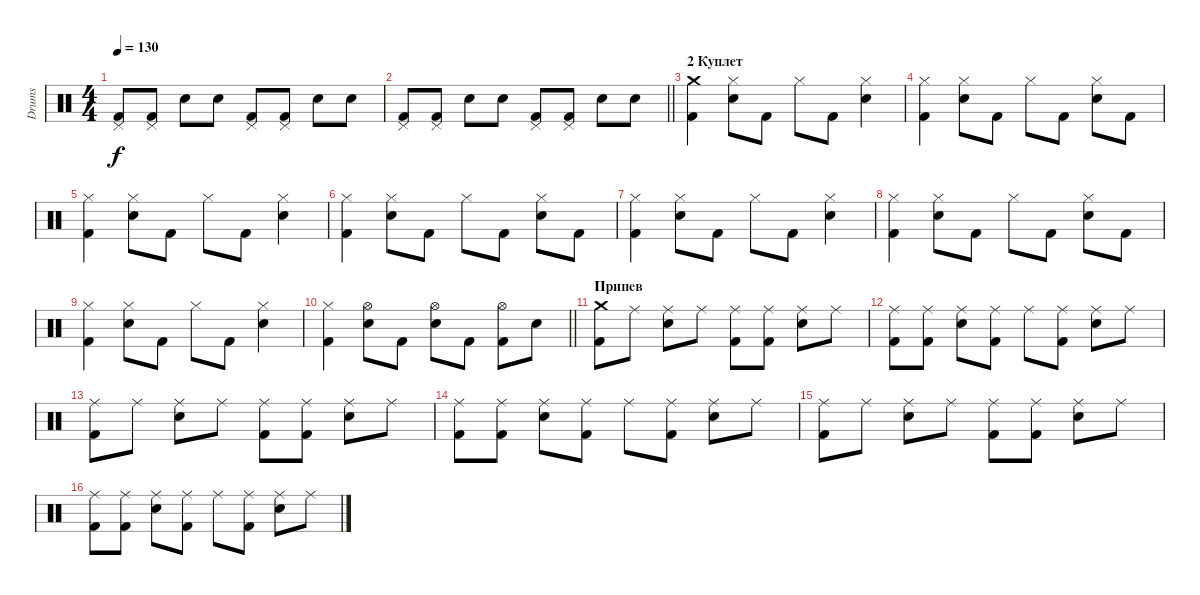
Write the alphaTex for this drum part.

\track ("Drums" "Drums") {instrument percussion}
\staff {score}
\articulation defaults
\ts (4 4)
\tempo 130
\clef neutral
\ks c
("Pedal Hi-Hat (hit)" "Kick (hit) 2").8{dy f} ("Pedal Hi-Hat (hit)" "Kick (hit) 2").8 "Snare (hit) 2".8 "Snare (hit)".8 ("Pedal Hi-Hat (hit)" "Kick (hit) 2").8 ("Pedal Hi-Hat (hit)" "Kick (hit) 2").8 "Snare (hit) 2".8 "Snare (hit)".8 |
\barLineRight lightlight
("Pedal Hi-Hat (hit)" "Kick (hit) 2").8 ("Pedal Hi-Hat (hit)" "Kick (hit) 2").8 "Snare (hit) 2".8 "Snare (hit)".8 ("Pedal Hi-Hat (hit)" "Kick (hit) 2").8 ("Pedal Hi-Hat (hit)" "Kick (hit) 2").8 "Snare (hit) 2".8 "Snare (hit)".8 |
\section ("" "2 Куплет")
("Crash medium (hit)" "Kick (hit) 2").4 ("Hi-Hat (closed)" "Snare (hit) 2").8 "Kick (hit) 2".8 "Hi-Hat (closed)".8 "Kick (hit) 2".8 ("Hi-Hat (closed)" "Snare (hit) 2").4 |
("Hi-Hat (closed)" "Kick (hit) 2").4 ("Hi-Hat (closed)" "Snare (hit) 2").8 "Kick (hit) 2".8 "Hi-Hat (closed)".8 "Kick (hit) 2".8 ("Hi-Hat (closed)" "Snare (hit) 2").8 "Kick (hit) 2".8 |
("Hi-Hat (closed)" "Kick (hit) 2").4 ("Hi-Hat (closed)" "Snare (hit) 2").8 "Kick (hit) 2".8 "Hi-Hat (closed)".8 "Kick (hit) 2".8 ("Hi-Hat (closed)" "Snare (hit) 2").4 |
("Hi-Hat (closed)" "Kick (hit) 2").4 ("Hi-Hat (closed)" "Snare (hit) 2").8 "Kick (hit) 2".8 "Hi-Hat (closed)".8 "Kick (hit) 2".8 ("Hi-Hat (closed)" "Snare (hit) 2").8 "Kick (hit) 2".8 |
("Hi-Hat (closed)" "Kick (hit) 2").4 ("Hi-Hat (closed)" "Snare (hit) 2").8 "Kick (hit) 2".8 "Hi-Hat (closed)".8 "Kick (hit) 2".8 ("Hi-Hat (closed)" "Snare (hit) 2").4 |
("Hi-Hat (closed)" "Kick (hit) 2").4 ("Hi-Hat (closed)" "Snare (hit) 2").8 "Kick (hit) 2".8 "Hi-Hat (closed)".8 "Kick (hit) 2".8 ("Hi-Hat (closed)" "Snare (hit) 2").8 "Kick (hit) 2".8 |
("Hi-Hat (closed)" "Kick (hit) 2").4 ("Hi-Hat (closed)" "Snare (hit) 2").8 "Kick (hit) 2".8 "Hi-Hat (closed)".8 "Kick (hit) 2".8 ("Hi-Hat (closed)" "Snare (hit) 2").4 |
\barLineRight lightlight
("Hi-Hat (closed)" "Kick (hit) 2").4 ("Hi-Hat (open)" "Snare (hit) 2").8 "Kick (hit) 2".8 ("Hi-Hat (open)" "Snare (hit) 2").8 "Kick (hit) 2".8 ("Hi-Hat (open)" "Kick (hit) 2").8 "Snare (hit) 2".8 |
\section ("" "Припев")
("Crash medium (hit)" "Kick (hit) 2").8 "Ride (middle)".8 ("Ride (middle)" "Snare (hit) 2").8 "Ride (middle)".8 ("Ride (middle)" "Kick (hit) 2").8 ("Ride (middle)" "Kick (hit) 2").8 ("Ride (middle)" "Snare (hit) 2").8 "Ride (middle)".8 |
("Ride (middle)" "Kick (hit) 2").8 ("Ride (middle)" "Kick (hit) 2").8 ("Ride (middle)" "Snare (hit) 2").8 ("Ride (middle)" "Kick (hit) 2").8 "Ride (middle)".8 ("Ride (middle)" "Kick (hit) 2").8 ("Ride (middle)" "Snare (hit) 2").8 "Ride (middle)".8 |
("Ride (middle)" "Kick (hit) 2").8 "Ride (middle)".8 ("Ride (middle)" "Snare (hit) 2").8 "Ride (middle)".8 ("Ride (middle)" "Kick (hit) 2").8 ("Ride (middle)" "Kick (hit) 2").8 ("Ride (middle)" "Snare (hit) 2").8 "Ride (middle)".8 |
("Ride (middle)" "Kick (hit) 2").8 ("Ride (middle)" "Kick (hit) 2").8 ("Ride (middle)" "Snare (hit) 2").8 ("Ride (middle)" "Kick (hit) 2").8 "Ride (middle)".8 ("Ride (middle)" "Kick (hit) 2").8 ("Ride (middle)" "Snare (hit) 2").8 "Ride (middle)".8 |
("Ride (middle)" "Kick (hit) 2").8 "Ride (middle)".8 ("Ride (middle)" "Snare (hit) 2").8 "Ride (middle)".8 ("Ride (middle)" "Kick (hit) 2").8 ("Ride (middle)" "Kick (hit) 2").8 ("Ride (middle)" "Snare (hit) 2").8 "Ride (middle)".8 |
("Ride (middle)" "Kick (hit) 2").8 ("Ride (middle)" "Kick (hit) 2").8 ("Ride (middle)" "Snare (hit) 2").8 ("Ride (middle)" "Kick (hit) 2").8 "Ride (middle)".8 ("Ride (middle)" "Kick (hit) 2").8 ("Ride (middle)" "Snare (hit) 2").8 "Ride (middle)".8
